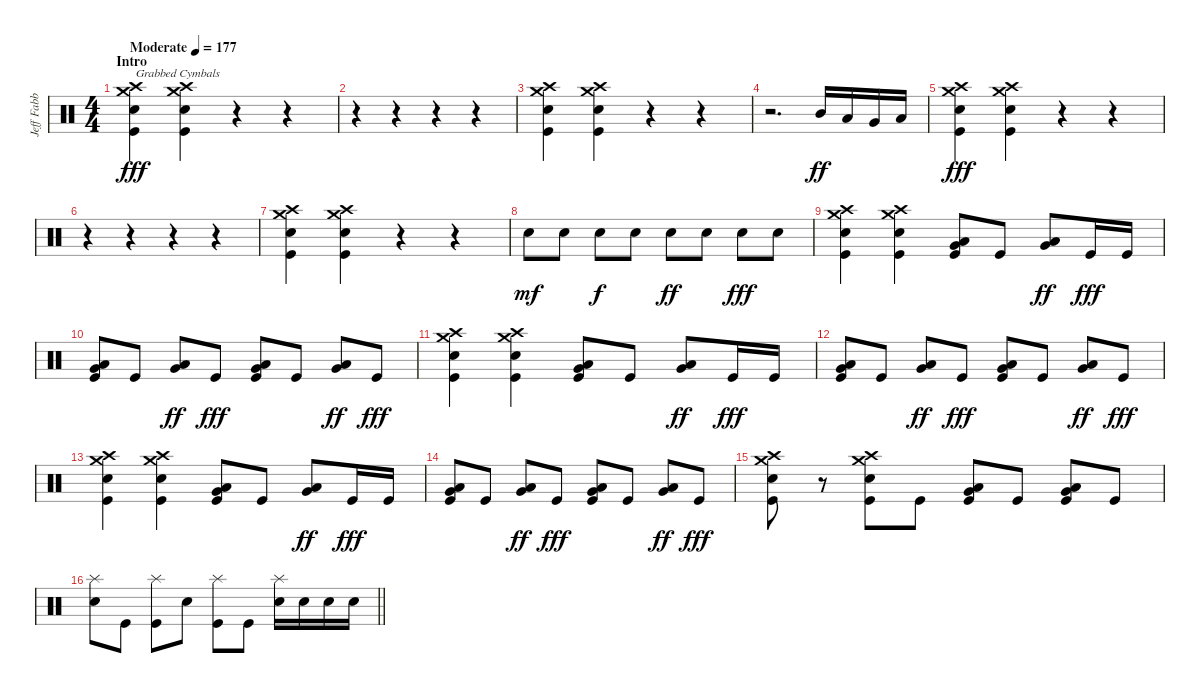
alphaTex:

\track ("Jeff Fabb (Drums)" "Jeff Fabb ") {instrument percussion}
\staff {score}
\articulation defaults
\ts (4 4)
\section ("" "Intro")
\tempo (177 "Moderate")
\clef neutral
\ks c
("Crash high (hit)" "Crash medium (hit)" "Electric Snare (hit)" "Kick (hit)").4{txt "Grabbed Cymbals" dy fff} ("Crash high (hit)" "Crash medium (hit)" "Electric Snare (hit)" "Kick (hit)").4 r.4 r.4 |
r.4 r.4 r.4 r.4 |
("Crash high (hit)" "Crash medium (hit)" "Electric Snare (hit)" "Kick (hit)").4 ("Crash high (hit)" "Crash medium (hit)" "Electric Snare (hit)" "Kick (hit)").4 r.4 r.4 |
r.2{d} "Mid Tom (hit)".16{dy ff} "Low Tom (hit)".16 "Very Low Tom (hit)".16 "Low Floor Tom (hit)".16 |
("Crash high (hit)" "Crash medium (hit)" "Electric Snare (hit)" "Kick (hit)").4{dy fff} ("Crash high (hit)" "Crash medium (hit)" "Electric Snare (hit)" "Kick (hit)").4 r.4 r.4 |
r.4 r.4 r.4 r.4 |
("Crash high (hit)" "Crash medium (hit)" "Electric Snare (hit)" "Kick (hit)").4 ("Crash high (hit)" "Crash medium (hit)" "Electric Snare (hit)" "Kick (hit)").4 r.4 r.4 |
"Electric Snare (hit)".8{dy mf} "Electric Snare (hit)".8 "Electric Snare (hit)".8{dy f} "Electric Snare (hit)".8 "Electric Snare (hit)".8{dy ff} "Electric Snare (hit)".8 "Electric Snare (hit)".8{dy fff} "Electric Snare (hit)".8 |
("Crash high (hit)" "Crash medium (hit)" "Electric Snare (hit)" "Kick (hit)").4 ("Crash high (hit)" "Crash medium (hit)" "Electric Snare (hit)" "Kick (hit)").4 ("Very Low Tom (hit)" "Low Floor Tom (hit)" "Kick (hit)").8 "Kick (hit)".8 ("Very Low Tom (hit)" "Low Floor Tom (hit)").8{dy ff} "Kick (hit)".16{dy fff} "Kick (hit)".16 |
("Low Tom (hit)" "Very Low Tom (hit)" "Kick (hit)").8 "Kick (hit)".8 ("Very Low Tom (hit)" "Low Floor Tom (hit)").8{dy ff} "Kick (hit)".8{dy fff} ("Very Low Tom (hit)" "Low Floor Tom (hit)" "Kick (hit)").8 "Kick (hit)".8 ("Very Low Tom (hit)" "Low Floor Tom (hit)").8{dy ff} "Kick (hit)".8{dy fff} |
("Crash high (hit)" "Crash medium (hit)" "Electric Snare (hit)" "Kick (hit)").4 ("Crash high (hit)" "Crash medium (hit)" "Electric Snare (hit)" "Kick (hit)").4 ("Very Low Tom (hit)" "Low Floor Tom (hit)" "Kick (hit)").8 "Kick (hit)".8 ("Very Low Tom (hit)" "Low Floor Tom (hit)").8{dy ff} "Kick (hit)".16{dy fff} "Kick (hit)".16 |
("Low Tom (hit)" "Very Low Tom (hit)" "Kick (hit)").8 "Kick (hit)".8 ("Very Low Tom (hit)" "Low Floor Tom (hit)").8{dy ff} "Kick (hit)".8{dy fff} ("Very Low Tom (hit)" "Low Floor Tom (hit)" "Kick (hit)").8 "Kick (hit)".8 ("Very Low Tom (hit)" "Low Floor Tom (hit)").8{dy ff} "Kick (hit)".8{dy fff} |
("Crash high (hit)" "Crash medium (hit)" "Electric Snare (hit)" "Kick (hit)").4 ("Crash high (hit)" "Crash medium (hit)" "Electric Snare (hit)" "Kick (hit)").4 ("Very Low Tom (hit)" "Low Floor Tom (hit)" "Kick (hit)").8 "Kick (hit)".8 ("Very Low Tom (hit)" "Low Floor Tom (hit)").8{dy ff} "Kick (hit)".16{dy fff} "Kick (hit)".16 |
("Low Tom (hit)" "Very Low Tom (hit)" "Kick (hit)").8 "Kick (hit)".8 ("Very Low Tom (hit)" "Low Floor Tom (hit)").8{dy ff} "Kick (hit)".8{dy fff} ("Very Low Tom (hit)" "Low Floor Tom (hit)" "Kick (hit)").8 "Kick (hit)".8 ("Very Low Tom (hit)" "Low Floor Tom (hit)").8{dy ff} "Kick (hit)".8{dy fff} |
("Crash high (hit)" "Crash medium (hit)" "Electric Snare (hit)" "Kick (hit)").8 r.8 ("Crash high (hit)" "Crash medium (hit)" "Electric Snare (hit)" "Kick (hit)").8 "Kick (hit)".8 ("Very Low Tom (hit)" "Low Floor Tom (hit)" "Kick (hit)").8 "Kick (hit)".8 ("Very Low Tom (hit)" "Low Floor Tom (hit)" "Kick (hit)").8 "Kick (hit)".8 |
\barLineRight lightlight
("Splash (hit)" "Electric Snare (hit)").8 "Kick (hit)".8 ("Splash (hit)" "Kick (hit)").8 "Electric Snare (hit)".8 ("Splash (hit)" "Kick (hit)").8 "Kick (hit)".8 ("Splash (hit)" "Electric Snare (hit)").16 "Electric Snare (hit)".16 "Electric Snare (hit)".16 "Electric Snare (hit)".16
